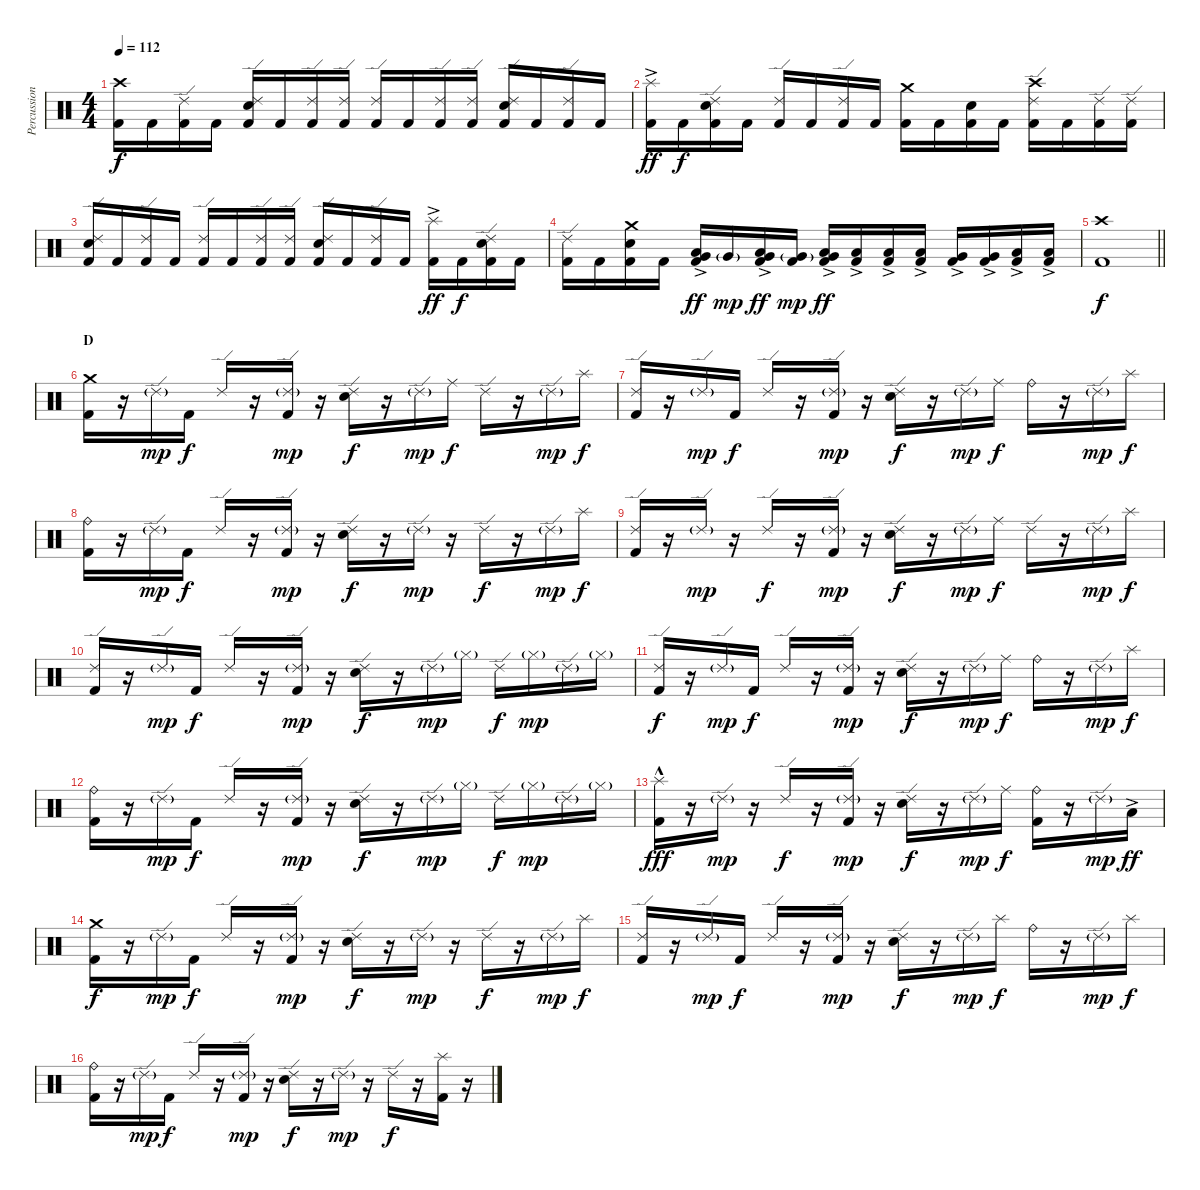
\track ("Percussion" "Percussion") {instrument percussion}
\staff {score}
\articulation defaults
\ts (4 4)
\tempo 112
\clef neutral
\ks c
("Crash high (hit)" "Kick (hit) 2").16{dy f} "Kick (hit) 2".16 ("Ride (edge) 2" "Kick (hit) 2").16 "Kick (hit) 2".16 ("Ride (edge) 2" "Electric Snare (hit)" "Kick (hit) 2").16 "Kick (hit) 2".16 ("Ride (edge) 2" "Kick (hit) 2").16 ("Ride (edge) 2" "Kick (hit) 2").16 ("Ride (edge) 2" "Kick (hit) 2").16 "Kick (hit) 2".16 ("Ride (edge) 2" "Kick (hit) 2").16 ("Ride (edge) 2" "Kick (hit) 2").16 ("Ride (edge) 2" "Electric Snare (hit)" "Kick (hit) 2").16 "Kick (hit) 2".16 ("Ride (edge) 2" "Kick (hit) 2").16 "Kick (hit) 2".16 |
("Splash (hit)"{ac} "Kick (hit) 2").16{dy ff} "Kick (hit) 2".16{dy f} ("Ride (edge) 2" "Electric Snare (hit)" "Kick (hit) 2").16 "Kick (hit) 2".16 ("Ride (edge) 2" "Kick (hit) 2").16 "Kick (hit) 2".16 ("Ride (edge) 2" "Kick (hit) 2").16 "Kick (hit) 2".16 ("Crash medium (hit)" "Kick (hit) 2").16 "Kick (hit) 2".16 ("Electric Snare (hit)" "Kick (hit) 2").16 "Kick (hit) 2".16 ("Crash high (hit)" "Ride (edge) 2" "Kick (hit) 2").16 "Kick (hit) 2".16 ("Ride (edge) 2" "Kick (hit) 2").16 ("Ride (edge) 2" "Kick (hit) 2").16 |
("Ride (edge) 2" "Electric Snare (hit)" "Kick (hit) 2").16 "Kick (hit) 2".16 ("Ride (edge) 2" "Kick (hit) 2").16 "Kick (hit) 2".16 ("Ride (edge) 2" "Kick (hit) 2").16 "Kick (hit) 2".16 ("Ride (edge) 2" "Kick (hit) 2").16 ("Ride (edge) 2" "Kick (hit) 2").16 ("Ride (edge) 2" "Electric Snare (hit)" "Kick (hit) 2").16 "Kick (hit) 2".16 ("Ride (edge) 2" "Kick (hit) 2").16 "Kick (hit) 2".16 ("Splash (hit)"{ac} "Kick (hit) 2").16{dy ff} "Kick (hit) 2".16{dy f} ("Ride (edge) 2" "Electric Snare (hit)" "Kick (hit) 2").16 "Kick (hit) 2".16 |
("Ride (edge) 2" "Kick (hit) 2").16 "Kick (hit) 2".16 ("Crash medium (hit)" "Electric Snare (hit)" "Kick (hit) 2").16 "Kick (hit) 2".16 ("Low Tom (hit)"{ac} "Very Low Tom (hit)"{ac} "Kick (hit) 2").16{dy ff} "Very Low Tom (hit)"{g}.16{dy mp} ("Low Tom (hit)"{ac} "Very Low Tom (hit)"{ac} "Kick (hit) 2").16{dy ff} ("Very Low Tom (hit)"{g} "Kick (hit) 2").16{dy mp} ("Low Tom (hit)"{ac} "Very Low Tom (hit)"{ac} "Kick (hit) 2").16{dy ff} ("Low Tom (hit)"{ac} "Kick (hit) 2").16 ("Low Tom (hit)"{ac} "Kick (hit) 2").16 ("Low Tom (hit)"{ac} "Kick (hit) 2").16 ("Very Low Tom (hit)"{ac} "Kick (hit) 2").16 ("Very Low Tom (hit)"{ac} "Kick (hit) 2").16 ("Low Floor Tom (hit)"{ac} "Kick (hit) 2").16 ("Low Floor Tom (hit)"{ac} "Kick (hit) 2").16 |
\barLineRight lightlight
("Crash high (hit)" "Kick (hit) 2").1{dy f} |
\section ("" "D")
("Crash medium (hit)" "Kick (hit) 2").16 r.16 "Ride (edge) 2"{g}.16{dy mp} "Kick (hit) 2".16{dy f} "Ride (edge) 2".16 r.16 ("Ride (edge) 2"{g} "Kick (hit) 2").16{dy mp} r.16 ("Ride (edge) 2" "Electric Snare (hit)").16{dy f} r.16 "Ride (edge) 2"{g}.16{dy mp} "Ride (middle)".16{dy f} "Ride (edge) 2".16 r.16 "Ride (edge) 2"{g}.16{dy mp} "Splash (hit)".16{dy f} |
("Ride (edge) 2" "Kick (hit) 2").16 r.16 "Ride (edge) 2"{g}.16{dy mp} "Kick (hit) 2".16{dy f} "Ride (edge) 2".16 r.16 ("Ride (edge) 2"{g} "Kick (hit) 2").16{dy mp} r.16 ("Ride (edge) 2" "Electric Snare (hit)").16{dy f} r.16 "Ride (edge) 2"{g}.16{dy mp} "Ride (middle)".16{dy f} "Ride (bell)".16 r.16 "Ride (edge) 2"{g}.16{dy mp} "Splash (hit)".16{dy f} |
("Ride (bell)" "Kick (hit) 2").16 r.16 "Ride (edge) 2"{g}.16{dy mp} "Kick (hit) 2".16{dy f} "Ride (edge) 2".16 r.16 ("Ride (edge) 2"{g} "Kick (hit) 2").16{dy mp} r.16 ("Ride (edge) 2" "Electric Snare (hit)").16{dy f} r.16 "Ride (edge) 2"{g}.16{dy mp} r.16 "Ride (edge) 2".16{dy f} r.16 "Ride (edge) 2"{g}.16{dy mp} "Splash (hit)".16{dy f} |
("Ride (edge) 2" "Kick (hit) 2").16 r.16 "Ride (edge) 2"{g}.16{dy mp} r.16 "Ride (edge) 2".16{dy f} r.16 ("Ride (edge) 2"{g} "Kick (hit) 2").16{dy mp} r.16 ("Ride (edge) 2" "Electric Snare (hit)").16{dy f} r.16 "Ride (edge) 2"{g}.16{dy mp} "Ride (middle)".16{dy f} "Ride (edge) 2".16 r.16 "Ride (edge) 2"{g}.16{dy mp} "Splash (hit)".16{dy f} |
("Ride (edge) 2" "Kick (hit) 2").16 r.16 "Ride (edge) 2"{g}.16{dy mp} "Kick (hit) 2".16{dy f} "Ride (edge) 2".16 r.16 ("Ride (edge) 2"{g} "Kick (hit) 2").16{dy mp} r.16 ("Ride (edge) 2" "Electric Snare (hit)").16{dy f} r.16 "Ride (edge) 2"{g}.16{dy mp} "Hi-Hat (closed)"{g}.16 "Ride (edge) 2".16{dy f} "Hi-Hat (closed)"{g}.16{dy mp} "Ride (edge) 2"{g}.16 "Hi-Hat (closed)"{g}.16 |
("Ride (edge) 2" "Kick (hit) 2").16{dy f} r.16 "Ride (edge) 2"{g}.16{dy mp} "Kick (hit) 2".16{dy f} "Ride (edge) 2".16 r.16 ("Ride (edge) 2"{g} "Kick (hit) 2").16{dy mp} r.16 ("Ride (edge) 2" "Electric Snare (hit)").16{dy f} r.16 "Ride (edge) 2"{g}.16{dy mp} "Ride (middle)".16{dy f} "Ride (bell)".16 r.16 "Ride (edge) 2"{g}.16{dy mp} "Splash (hit)".16{dy f} |
("Ride (bell)" "Kick (hit) 2").16 r.16 "Ride (edge) 2"{g}.16{dy mp} "Kick (hit) 2".16{dy f} "Ride (edge) 2".16 r.16 ("Ride (edge) 2"{g} "Kick (hit) 2").16{dy mp} r.16 ("Ride (edge) 2" "Electric Snare (hit)").16{dy f} r.16 "Ride (edge) 2"{g}.16{dy mp} "Hi-Hat (closed)"{g}.16 "Ride (edge) 2".16{dy f} "Hi-Hat (closed)"{g}.16{dy mp} "Ride (edge) 2"{g}.16 "Hi-Hat (closed)"{g}.16 |
("Splash (hit)"{hac} "Kick (hit) 2").16{dy fff} r.16 "Ride (edge) 2"{g}.16{dy mp} r.16 "Ride (edge) 2".16{dy f} r.16 ("Ride (edge) 2"{g} "Kick (hit) 2").16{dy mp} r.16 ("Ride (edge) 2" "Electric Snare (hit)").16{dy f} r.16 "Ride (edge) 2"{g}.16{dy mp} "Ride (middle)".16{dy f} ("Ride (bell)" "Kick (hit) 2").16 r.16 "Ride (edge) 2"{g}.16{dy mp} "Low Tom (hit)"{ac}.16{dy ff} |
("Crash medium (hit)" "Kick (hit) 2").16{dy f} r.16 "Ride (edge) 2"{g}.16{dy mp} "Kick (hit) 2".16{dy f} "Ride (edge) 2".16 r.16 ("Ride (edge) 2"{g} "Kick (hit) 2").16{dy mp} r.16 ("Ride (edge) 2" "Electric Snare (hit)").16{dy f} r.16 "Ride (edge) 2"{g}.16{dy mp} r.16 "Ride (edge) 2".16{dy f} r.16 "Ride (edge) 2"{g}.16{dy mp} "Splash (hit)".16{dy f} |
("Ride (edge) 2" "Kick (hit) 2").16 r.16 "Ride (edge) 2"{g}.16{dy mp} "Kick (hit) 2".16{dy f} "Ride (edge) 2".16 r.16 ("Ride (edge) 2"{g} "Kick (hit) 2").16{dy mp} r.16 ("Ride (edge) 2" "Electric Snare (hit)").16{dy f} r.16 "Ride (edge) 2"{g}.16{dy mp} "Splash (hit)".16{dy f} "Ride (bell)".16 r.16 "Ride (edge) 2"{g}.16{dy mp} "Splash (hit)".16{dy f} |
("Ride (bell)" "Kick (hit) 2").16 r.16 "Ride (edge) 2"{g}.16{dy mp} "Kick (hit) 2".16{dy f} "Ride (edge) 2".16 r.16 ("Ride (edge) 2"{g} "Kick (hit) 2").16{dy mp} r.16 ("Ride (edge) 2" "Electric Snare (hit)").16{dy f} r.16 "Ride (edge) 2"{g}.16{dy mp} r.16 "Ride (edge) 2".16{dy f} r.16 ("Splash (hit)" "Kick (hit) 2").16 r.16
